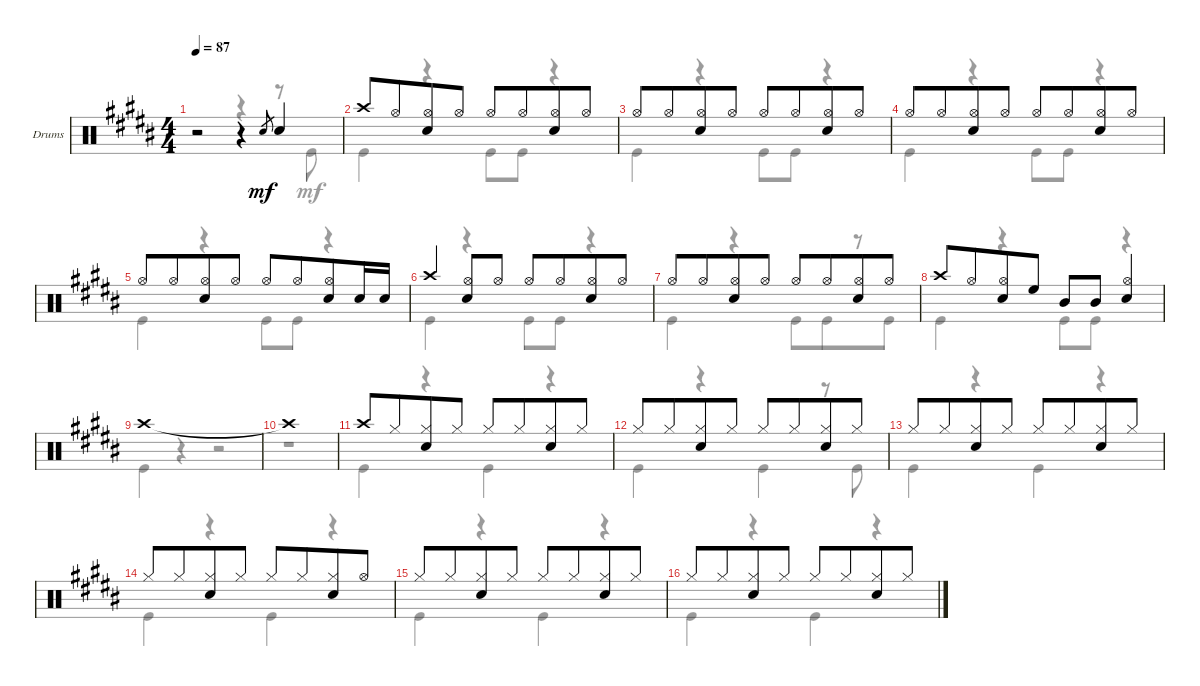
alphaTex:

\bracketExtendMode groupsimilarinstruments
\firstSystemTrackNameOrientation horizontal
\otherSystemsTrackNameOrientation horizontal
\track ("Drums" "Drums") {multiBarRest instrument percussion}
\staff {score}
\articulation defaults
\voice
\ts (4 4)
\beaming (8 4 4)
\tempo 87
\clef neutral
\ks b
r.2{dy mf} r.4 "Snare (hit) 2".8{gr} "Snare (hit) 2".4 |
"Crash high (hit)".8 "Hi-Hat (open)".8 ("Hi-Hat (open)" "Snare (hit) 2").8 "Hi-Hat (open)".8 "Hi-Hat (open)".8 "Hi-Hat (open)".8 ("Hi-Hat (open)" "Snare (hit) 2").8 "Hi-Hat (open)".8 |
"Hi-Hat (open)".8 "Hi-Hat (open)".8 ("Hi-Hat (open)" "Snare (hit) 2").8 "Hi-Hat (open)".8 "Hi-Hat (open)".8 "Hi-Hat (open)".8 ("Hi-Hat (open)" "Snare (hit) 2").8 "Hi-Hat (open)".8 |
"Hi-Hat (open)".8 "Hi-Hat (open)".8 ("Hi-Hat (open)" "Snare (hit) 2").8 "Hi-Hat (open)".8 "Hi-Hat (open)".8 "Hi-Hat (open)".8 ("Hi-Hat (open)" "Snare (hit) 2").8 "Hi-Hat (open)".8 |
"Hi-Hat (open)".8 "Hi-Hat (open)".8 ("Hi-Hat (open)" "Snare (hit) 2").8 "Hi-Hat (open)".8 "Hi-Hat (open)".8 "Hi-Hat (open)".8 ("Hi-Hat (open)" "Snare (hit) 2").8 "Snare (hit) 2".16 "Snare (hit) 2".16 |
"Crash high (hit)".4 ("Hi-Hat (open)" "Snare (hit) 2").8 "Hi-Hat (open)".8 "Hi-Hat (open)".8 "Hi-Hat (open)".8 ("Hi-Hat (open)" "Snare (hit) 2").8 "Hi-Hat (open)".8 |
"Hi-Hat (open)".8 "Hi-Hat (open)".8 ("Hi-Hat (open)" "Snare (hit) 2").8 "Hi-Hat (open)".8 "Hi-Hat (open)".8 "Hi-Hat (open)".8 ("Hi-Hat (open)" "Snare (hit) 2").8 "Hi-Hat (open)".8 |
"Crash high (hit)".8 "Hi-Hat (open)".8 ("Hi-Hat (open)" "Snare (hit) 2").8 "High Floor Tom (hit)".8 "Mid Tom (hit)".8 "Mid Tom (hit)".8 ("Snare (hit) 2" "Hi-Hat (open)").4 |
"Crash high (hit)".1 |
"Crash high (hit)"{t}.1 |
"Crash high (hit)".8 "Hi-Hat (closed)".8 ("Hi-Hat (closed)" "Snare (hit) 2").8 "Hi-Hat (closed)".8 "Hi-Hat (closed)".8 "Hi-Hat (closed)".8 ("Hi-Hat (closed)" "Snare (hit) 2").8 "Hi-Hat (closed)".8 |
"Hi-Hat (closed)".8 "Hi-Hat (closed)".8 ("Hi-Hat (closed)" "Snare (hit) 2").8 "Hi-Hat (closed)".8 "Hi-Hat (closed)".8 "Hi-Hat (closed)".8 ("Hi-Hat (closed)" "Snare (hit) 2").8 "Hi-Hat (closed)".8 |
"Hi-Hat (closed)".8 "Hi-Hat (closed)".8 ("Hi-Hat (closed)" "Snare (hit) 2").8 "Hi-Hat (closed)".8 "Hi-Hat (closed)".8 "Hi-Hat (closed)".8 ("Hi-Hat (closed)" "Snare (hit) 2").8 "Hi-Hat (closed)".8 |
"Hi-Hat (closed)".8 "Hi-Hat (closed)".8 ("Hi-Hat (closed)" "Snare (hit) 2").8 "Hi-Hat (closed)".8 "Hi-Hat (closed)".8 "Hi-Hat (closed)".8 ("Hi-Hat (closed)" "Snare (hit) 2").8 "Hi-Hat (open)".8 |
"Hi-Hat (closed)".8 "Hi-Hat (closed)".8 ("Hi-Hat (closed)" "Snare (hit) 2").8 "Hi-Hat (closed)".8 "Hi-Hat (closed)".8 "Hi-Hat (closed)".8 ("Hi-Hat (closed)" "Snare (hit) 2").8 "Hi-Hat (closed)".8 |
"Hi-Hat (closed)".8 "Hi-Hat (closed)".8 ("Hi-Hat (closed)" "Snare (hit) 2").8 "Hi-Hat (closed)".8 "Hi-Hat (closed)".8 "Hi-Hat (closed)".8 ("Hi-Hat (closed)" "Snare (hit) 2").8 "Hi-Hat (closed)".8
\voice
\clef neutral
\ottava regular
\simile none
\ks b
r.2{dy mf} r.4 r.8 "Kick (hit)".8 |
"Kick (hit)".4 r.4 "Kick (hit)".8 "Kick (hit)".8 r.4 |
"Kick (hit)".4 r.4 "Kick (hit)".8 "Kick (hit)".8 r.4 |
"Kick (hit)".4 r.4 "Kick (hit)".8 "Kick (hit)".8 r.4 |
"Kick (hit)".4 r.4 "Kick (hit)".8 "Kick (hit)".8 r.4 |
"Kick (hit)".4 r.4 "Kick (hit)".8 "Kick (hit)".8 r.4 |
"Kick (hit)".4 r.4 "Kick (hit)".8 "Kick (hit)".8 r.8 "Kick (hit)".8 |
"Kick (hit)".4 r.4 "Kick (hit)".8 "Kick (hit)".8 r.4 |
"Kick (hit)".4 r.4 r.2 |
r.1 |
"Kick (hit)".4 r.4 "Kick (hit)".4 r.4 |
"Kick (hit)".4 r.4 "Kick (hit)".4 r.8 "Kick (hit)".8 |
"Kick (hit)".4 r.4 "Kick (hit)".4 r.4 |
"Kick (hit)".4 r.4 "Kick (hit)".4 r.4 |
"Kick (hit)".4 r.4 "Kick (hit)".4 r.4 |
"Kick (hit)".4 r.4 "Kick (hit)".4 r.4
